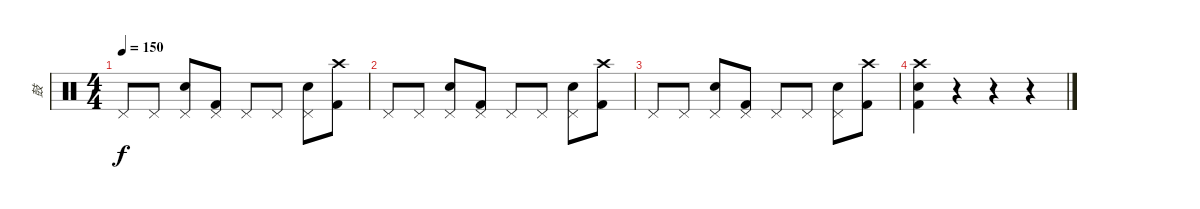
\track ("鼓" "鼓") {instrument percussion}
\staff {score}
\articulation defaults
\ts (4 4)
\tempo 150
\clef neutral
\ks c "Pedal Hi-Hat (hit)".8{dy f} "Pedal Hi-Hat (hit)".8
("Pedal Hi-Hat (hit)" "Electric Snare (hit)").8 ("Pedal Hi-Hat (hit)" "Kick (hit) 2").8 "Pedal Hi-Hat (hit)".8 "Pedal Hi-Hat (hit)".8 ("Pedal Hi-Hat (hit)" "Electric Snare (hit)").8 ("Crash high (hit)" "Kick (hit) 2").8 |
"Pedal Hi-Hat (hit)".8 "Pedal Hi-Hat (hit)".8 ("Pedal Hi-Hat (hit)" "Electric Snare (hit)").8 ("Pedal Hi-Hat (hit)" "Kick (hit) 2").8 "Pedal Hi-Hat (hit)".8 "Pedal Hi-Hat (hit)".8 ("Pedal Hi-Hat (hit)" "Electric Snare (hit)").8 ("Crash high (hit)" "Kick (hit) 2").8 |
"Pedal Hi-Hat (hit)".8 "Pedal Hi-Hat (hit)".8 ("Pedal Hi-Hat (hit)" "Electric Snare (hit)").8 ("Pedal Hi-Hat (hit)" "Kick (hit) 2").8 "Pedal Hi-Hat (hit)".8 "Pedal Hi-Hat (hit)".8 ("Pedal Hi-Hat (hit)" "Electric Snare (hit)").8 ("Crash high (hit)" "Kick (hit) 2").8 |
("Crash high (hit)" "Kick (hit) 2" "Electric Snare (hit)").4 r.4 r.4 r.4
